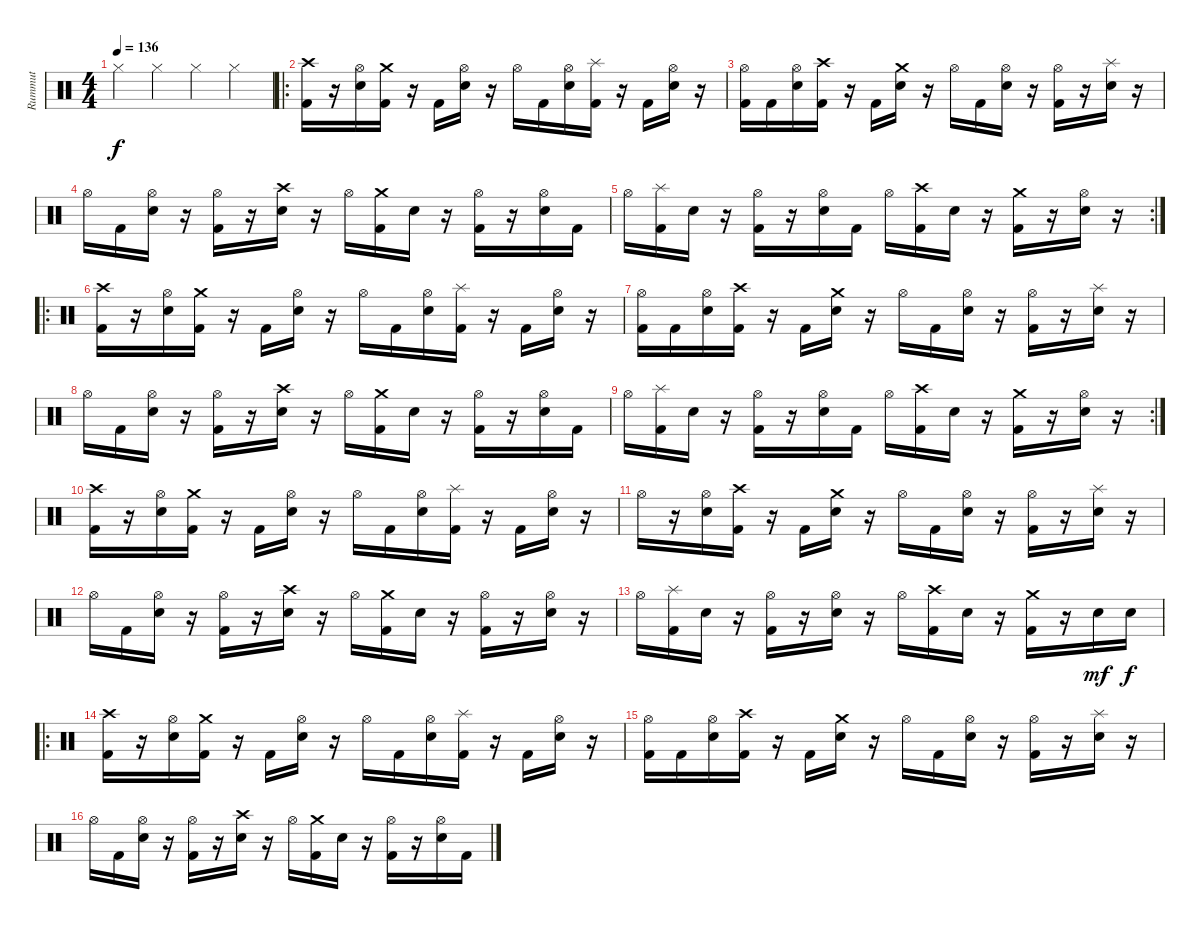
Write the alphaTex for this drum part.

\track ("Rummut" "Rummut") {instrument percussion}
\staff {score}
\articulation defaults
\ts (4 4)
\tempo 136
\clef neutral
\ks c "Hi-Hat (closed)".4{dy f} "Hi-Hat (closed)".4 "Hi-Hat (closed)".4 "Hi-Hat (closed)".4
|
\ro
("Crash high (hit)" "Kick (hit) 2").16 r.16 ("Hi-Hat (open)" "Electric Snare (hit)").16 ("Crash medium (hit)" "Kick (hit) 2").16 r.16 "Kick (hit) 2".16 ("Hi-Hat (open)" "Electric Snare (hit)").16 r.16 "Hi-Hat (open)".16 "Kick (hit) 2".16 ("Hi-Hat (open)" "Electric Snare (hit)").16 ("Splash (hit)" "Kick (hit) 2").16 r.16 "Kick (hit) 2".16 ("Hi-Hat (open)" "Electric Snare (hit)").16 r.16 |
("Hi-Hat (open)" "Kick (hit) 2").16 "Kick (hit) 2".16 ("Hi-Hat (open)" "Electric Snare (hit)").16 ("Crash high (hit)" "Kick (hit) 2").16 r.16 "Kick (hit) 2".16 ("Crash medium (hit)" "Electric Snare (hit)").16 r.16 "Hi-Hat (open)".16 "Kick (hit) 2".16 ("Hi-Hat (open)" "Electric Snare (hit)").16 r.16 ("Hi-Hat (open)" "Kick (hit) 2").16 r.16 ("Splash (hit)" "Electric Snare (hit)").16 r.16 |
"Hi-Hat (open)".16 "Kick (hit) 2".16 ("Hi-Hat (open)" "Electric Snare (hit)").16 r.16 ("Hi-Hat (open)" "Kick (hit) 2").16 r.16 ("Crash high (hit)" "Electric Snare (hit)").16 r.16 "Hi-Hat (open)".16 ("Crash medium (hit)" "Kick (hit) 2").16 "Electric Snare (hit)".16 r.16 ("Hi-Hat (open)" "Kick (hit) 2").16 r.16 ("Hi-Hat (open)" "Electric Snare (hit)").16 "Kick (hit) 2".16 |
\rc 2 "Hi-Hat (open)".16
("Splash (hit)" "Kick (hit) 2").16 "Electric Snare (hit)".16 r.16 ("Hi-Hat (open)" "Kick (hit) 2").16 r.16 ("Hi-Hat (open)" "Electric Snare (hit)").16 "Kick (hit) 2".16 "Hi-Hat (open)".16 ("Crash high (hit)" "Kick (hit) 2").16 "Electric Snare (hit)".16 r.16 ("Crash medium (hit)" "Kick (hit) 2").16 r.16 ("Hi-Hat (open)" "Electric Snare (hit)").16 r.16 |
\ro
("Crash high (hit)" "Kick (hit) 2").16 r.16 ("Hi-Hat (open)" "Electric Snare (hit)").16 ("Crash medium (hit)" "Kick (hit) 2").16 r.16 "Kick (hit) 2".16 ("Hi-Hat (open)" "Electric Snare (hit)").16 r.16 "Hi-Hat (open)".16 "Kick (hit) 2".16 ("Hi-Hat (open)" "Electric Snare (hit)").16 ("Splash (hit)" "Kick (hit) 2").16 r.16 "Kick (hit) 2".16 ("Hi-Hat (open)" "Electric Snare (hit)").16 r.16 |
("Hi-Hat (open)" "Kick (hit) 2").16 "Kick (hit) 2".16 ("Hi-Hat (open)" "Electric Snare (hit)").16 ("Crash high (hit)" "Kick (hit) 2").16 r.16 "Kick (hit) 2".16 ("Crash medium (hit)" "Electric Snare (hit)").16 r.16 "Hi-Hat (open)".16 "Kick (hit) 2".16 ("Hi-Hat (open)" "Electric Snare (hit)").16 r.16 ("Hi-Hat (open)" "Kick (hit) 2").16 r.16 ("Splash (hit)" "Electric Snare (hit)").16 r.16 |
"Hi-Hat (open)".16 "Kick (hit) 2".16 ("Hi-Hat (open)" "Electric Snare (hit)").16 r.16 ("Hi-Hat (open)" "Kick (hit) 2").16 r.16 ("Crash high (hit)" "Electric Snare (hit)").16 r.16 "Hi-Hat (open)".16 ("Crash medium (hit)" "Kick (hit) 2").16 "Electric Snare (hit)".16 r.16 ("Hi-Hat (open)" "Kick (hit) 2").16 r.16 ("Hi-Hat (open)" "Electric Snare (hit)").16 "Kick (hit) 2".16 |
\rc 2 "Hi-Hat (open)".16
("Splash (hit)" "Kick (hit) 2").16 "Electric Snare (hit)".16 r.16 ("Hi-Hat (open)" "Kick (hit) 2").16 r.16 ("Hi-Hat (open)" "Electric Snare (hit)").16 "Kick (hit) 2".16 "Hi-Hat (open)".16 ("Crash high (hit)" "Kick (hit) 2").16 "Electric Snare (hit)".16 r.16 ("Crash medium (hit)" "Kick (hit) 2").16 r.16 ("Hi-Hat (open)" "Electric Snare (hit)").16 r.16 |
("Crash high (hit)" "Kick (hit) 2").16 r.16 ("Hi-Hat (open)" "Electric Snare (hit)").16 ("Crash medium (hit)" "Kick (hit) 2").16 r.16 "Kick (hit) 2".16 ("Hi-Hat (open)" "Electric Snare (hit)").16 r.16 "Hi-Hat (open)".16 "Kick (hit) 2".16 ("Hi-Hat (open)" "Electric Snare (hit)").16 ("Splash (hit)" "Kick (hit) 2").16 r.16 "Kick (hit) 2".16 ("Hi-Hat (open)" "Electric Snare (hit)").16 r.16 |
"Hi-Hat (open)".16 r.16 ("Hi-Hat (open)" "Electric Snare (hit)").16 ("Crash high (hit)" "Kick (hit) 2").16 r.16 "Kick (hit) 2".16 ("Crash medium (hit)" "Electric Snare (hit)").16 r.16 "Hi-Hat (open)".16 "Kick (hit) 2".16 ("Hi-Hat (open)" "Electric Snare (hit)").16 r.16 ("Hi-Hat (open)" "Kick (hit) 2").16 r.16 ("Splash (hit)" "Electric Snare (hit)").16 r.16 |
"Hi-Hat (open)".16 "Kick (hit) 2".16 ("Hi-Hat (open)" "Electric Snare (hit)").16 r.16 ("Hi-Hat (open)" "Kick (hit) 2").16 r.16 ("Crash high (hit)" "Electric Snare (hit)").16 r.16 "Hi-Hat (open)".16 ("Crash medium (hit)" "Kick (hit) 2").16 "Electric Snare (hit)".16 r.16 ("Hi-Hat (open)" "Kick (hit) 2").16 r.16 ("Hi-Hat (open)" "Electric Snare (hit)").16 r.16 |
"Hi-Hat (open)".16 ("Splash (hit)" "Kick (hit) 2").16 "Electric Snare (hit)".16 r.16 ("Hi-Hat (open)" "Kick (hit) 2").16 r.16 ("Hi-Hat (open)" "Electric Snare (hit)").16 r.16 "Hi-Hat (open)".16 ("Crash high (hit)" "Kick (hit) 2").16 "Electric Snare (hit)".16 r.16 ("Crash medium (hit)" "Kick (hit) 2").16 r.16 "Electric Snare (hit)".16{dy mf} "Electric Snare (hit)".16{dy f} |
\ro
("Crash high (hit)" "Kick (hit) 2").16 r.16 ("Hi-Hat (open)" "Electric Snare (hit)").16 ("Crash medium (hit)" "Kick (hit) 2").16 r.16 "Kick (hit) 2".16 ("Hi-Hat (open)" "Electric Snare (hit)").16 r.16 "Hi-Hat (open)".16 "Kick (hit) 2".16 ("Hi-Hat (open)" "Electric Snare (hit)").16 ("Splash (hit)" "Kick (hit) 2").16 r.16 "Kick (hit) 2".16 ("Hi-Hat (open)" "Electric Snare (hit)").16 r.16 |
("Hi-Hat (open)" "Kick (hit) 2").16 "Kick (hit) 2".16 ("Hi-Hat (open)" "Electric Snare (hit)").16 ("Crash high (hit)" "Kick (hit) 2").16 r.16 "Kick (hit) 2".16 ("Crash medium (hit)" "Electric Snare (hit)").16 r.16 "Hi-Hat (open)".16 "Kick (hit) 2".16 ("Hi-Hat (open)" "Electric Snare (hit)").16 r.16 ("Hi-Hat (open)" "Kick (hit) 2").16 r.16 ("Splash (hit)" "Electric Snare (hit)").16 r.16 |
"Hi-Hat (open)".16 "Kick (hit) 2".16 ("Hi-Hat (open)" "Electric Snare (hit)").16 r.16 ("Hi-Hat (open)" "Kick (hit) 2").16 r.16 ("Crash high (hit)" "Electric Snare (hit)").16 r.16 "Hi-Hat (open)".16 ("Crash medium (hit)" "Kick (hit) 2").16 "Electric Snare (hit)".16 r.16 ("Hi-Hat (open)" "Kick (hit) 2").16 r.16 ("Hi-Hat (open)" "Electric Snare (hit)").16 "Kick (hit) 2".16
